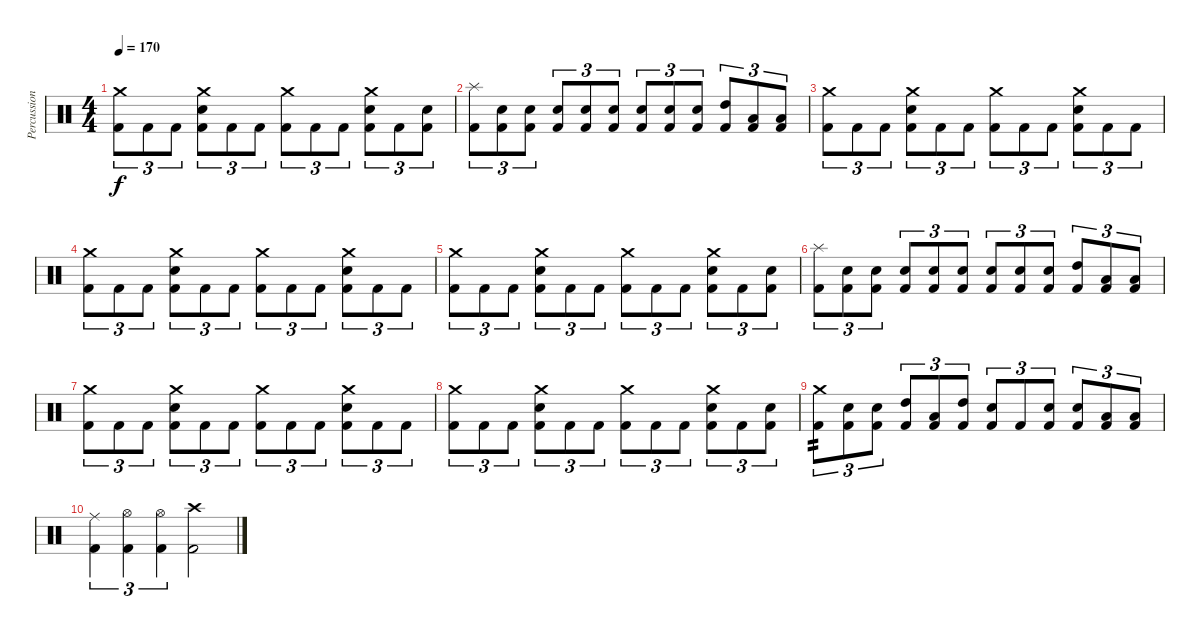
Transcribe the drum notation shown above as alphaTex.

\track ("Percussion" "Percussion") {instrument percussion}
\staff {score}
\articulation defaults
\ts (4 4)
\tempo 170
\clef neutral
\ks c
("Crash medium (hit)" "Kick (hit) 2").8{tu (3 2) dy f} "Kick (hit) 2".8{tu (3 2)} "Kick (hit) 2".8{tu (3 2)} ("Crash medium (hit)" "Electric Snare (hit)" "Kick (hit) 2").8{tu (3 2)} "Kick (hit) 2".8{tu (3 2)} "Kick (hit) 2".8{tu (3 2)} ("Crash medium (hit)" "Kick (hit) 2").8{tu (3 2)} "Kick (hit) 2".8{tu (3 2)} "Kick (hit) 2".8{tu (3 2)} ("Crash medium (hit)" "Electric Snare (hit)" "Kick (hit) 2").8{tu (3 2)} "Kick (hit) 2".8{tu (3 2)} ("Electric Snare (hit)" "Kick (hit) 2").8{tu (3 2)} |
("Splash (hit)" "Kick (hit) 2").8{tu (3 2)} ("Electric Snare (hit)" "Kick (hit) 2").8{tu (3 2)} ("Electric Snare (hit)" "Kick (hit) 2").8{tu (3 2)} ("Electric Snare (hit)" "Kick (hit) 2").8{tu (3 2)} ("Electric Snare (hit)" "Kick (hit) 2").8{tu (3 2)} ("Electric Snare (hit)" "Kick (hit) 2").8{tu (3 2)} ("Electric Snare (hit)" "Kick (hit) 2").8{tu (3 2)} ("Electric Snare (hit)" "Kick (hit) 2").8{tu (3 2)} ("Electric Snare (hit)" "Kick (hit) 2").8{tu (3 2)} ("High Tom (hit)" "Kick (hit) 2").8{tu (3 2)} ("Low Tom (hit)" "Kick (hit) 2").8{tu (3 2)} ("Low Tom (hit)" "Kick (hit) 2").8{tu (3 2)} |
("Crash medium (hit)" "Kick (hit) 2").8{tu (3 2)} "Kick (hit) 2".8{tu (3 2)} "Kick (hit) 2".8{tu (3 2)} ("Crash medium (hit)" "Electric Snare (hit)" "Kick (hit) 2").8{tu (3 2)} "Kick (hit) 2".8{tu (3 2)} "Kick (hit) 2".8{tu (3 2)} ("Crash medium (hit)" "Kick (hit) 2").8{tu (3 2)} "Kick (hit) 2".8{tu (3 2)} "Kick (hit) 2".8{tu (3 2)} ("Crash medium (hit)" "Electric Snare (hit)" "Kick (hit) 2").8{tu (3 2)} "Kick (hit) 2".8{tu (3 2)} "Kick (hit) 2".8{tu (3 2)} |
("Crash medium (hit)" "Kick (hit) 2").8{tu (3 2)} "Kick (hit) 2".8{tu (3 2)} "Kick (hit) 2".8{tu (3 2)} ("Crash medium (hit)" "Electric Snare (hit)" "Kick (hit) 2").8{tu (3 2)} "Kick (hit) 2".8{tu (3 2)} "Kick (hit) 2".8{tu (3 2)} ("Crash medium (hit)" "Kick (hit) 2").8{tu (3 2)} "Kick (hit) 2".8{tu (3 2)} "Kick (hit) 2".8{tu (3 2)} ("Crash medium (hit)" "Electric Snare (hit)" "Kick (hit) 2").8{tu (3 2)} "Kick (hit) 2".8{tu (3 2)} "Kick (hit) 2".8{tu (3 2)} |
("Crash medium (hit)" "Kick (hit) 2").8{tu (3 2)} "Kick (hit) 2".8{tu (3 2)} "Kick (hit) 2".8{tu (3 2)} ("Crash medium (hit)" "Electric Snare (hit)" "Kick (hit) 2").8{tu (3 2)} "Kick (hit) 2".8{tu (3 2)} "Kick (hit) 2".8{tu (3 2)} ("Crash medium (hit)" "Kick (hit) 2").8{tu (3 2)} "Kick (hit) 2".8{tu (3 2)} "Kick (hit) 2".8{tu (3 2)} ("Crash medium (hit)" "Electric Snare (hit)" "Kick (hit) 2").8{tu (3 2)} "Kick (hit) 2".8{tu (3 2)} ("Electric Snare (hit)" "Kick (hit) 2").8{tu (3 2)} |
("Splash (hit)" "Kick (hit) 2").8{tu (3 2)} ("Electric Snare (hit)" "Kick (hit) 2").8{tu (3 2)} ("Electric Snare (hit)" "Kick (hit) 2").8{tu (3 2)} ("Electric Snare (hit)" "Kick (hit) 2").8{tu (3 2)} ("Electric Snare (hit)" "Kick (hit) 2").8{tu (3 2)} ("Electric Snare (hit)" "Kick (hit) 2").8{tu (3 2)} ("Electric Snare (hit)" "Kick (hit) 2").8{tu (3 2)} ("Electric Snare (hit)" "Kick (hit) 2").8{tu (3 2)} ("Electric Snare (hit)" "Kick (hit) 2").8{tu (3 2)} ("High Tom (hit)" "Kick (hit) 2").8{tu (3 2)} ("Low Tom (hit)" "Kick (hit) 2").8{tu (3 2)} ("Low Tom (hit)" "Kick (hit) 2").8{tu (3 2)} |
("Crash medium (hit)" "Kick (hit) 2").8{tu (3 2)} "Kick (hit) 2".8{tu (3 2)} "Kick (hit) 2".8{tu (3 2)} ("Crash medium (hit)" "Electric Snare (hit)" "Kick (hit) 2").8{tu (3 2)} "Kick (hit) 2".8{tu (3 2)} "Kick (hit) 2".8{tu (3 2)} ("Crash medium (hit)" "Kick (hit) 2").8{tu (3 2)} "Kick (hit) 2".8{tu (3 2)} "Kick (hit) 2".8{tu (3 2)} ("Crash medium (hit)" "Electric Snare (hit)" "Kick (hit) 2").8{tu (3 2)} "Kick (hit) 2".8{tu (3 2)} "Kick (hit) 2".8{tu (3 2)} |
("Crash medium (hit)" "Kick (hit) 2").8{tu (3 2)} "Kick (hit) 2".8{tu (3 2)} "Kick (hit) 2".8{tu (3 2)} ("Crash medium (hit)" "Electric Snare (hit)" "Kick (hit) 2").8{tu (3 2)} "Kick (hit) 2".8{tu (3 2)} "Kick (hit) 2".8{tu (3 2)} ("Crash medium (hit)" "Kick (hit) 2").8{tu (3 2)} "Kick (hit) 2".8{tu (3 2)} "Kick (hit) 2".8{tu (3 2)} ("Crash medium (hit)" "Electric Snare (hit)" "Kick (hit) 2").8{tu (3 2)} "Kick (hit) 2".8{tu (3 2)} ("Electric Snare (hit)" "Kick (hit) 2").8{tu (3 2)} |
("Crash medium (hit)" "Kick (hit) 2").8{tu (3 2) tp 2} ("Electric Snare (hit)" "Kick (hit) 2").8{tu (3 2)} ("Electric Snare (hit)" "Kick (hit) 2").8{tu (3 2)} ("High Tom (hit)" "Kick (hit) 2").8{tu (3 2)} ("Low Tom (hit)" "Kick (hit) 2").8{tu (3 2)} ("High Tom (hit)" "Kick (hit) 2").8{tu (3 2)} ("Electric Snare (hit)" "Kick (hit) 2").8{tu (3 2)} "Kick (hit) 2".8{tu (3 2)} ("Electric Snare (hit)" "Kick (hit) 2").8{tu (3 2)} ("Electric Snare (hit)" "Kick (hit) 2").8{tu (3 2)} ("Low Tom (hit)" "Kick (hit) 2").8{tu (3 2)} ("Low Tom (hit)" "Kick (hit) 2").8{tu (3 2)} |
("Ride (middle)" "Kick (hit) 2").4{tu (3 2)} ("Hi-Hat (open)" "Kick (hit) 2").4{tu (3 2)} ("Hi-Hat (open)" "Kick (hit) 2").4{tu (3 2)} ("Crash high (hit)" "Kick (hit) 2").2
